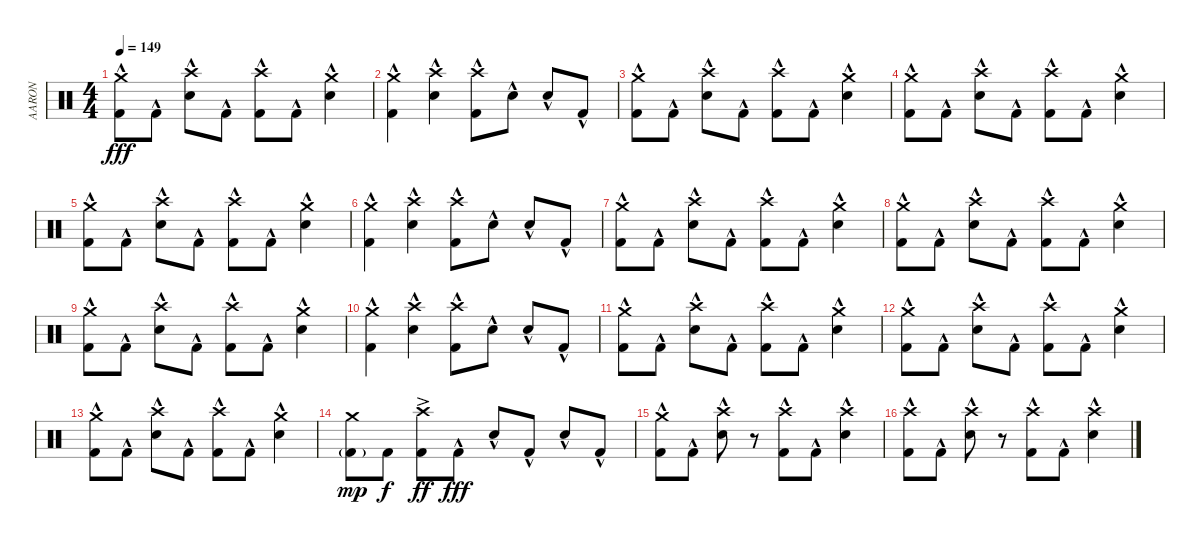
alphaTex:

\track ("AARON" "AARON") {instrument percussion}
\staff {score}
\articulation defaults
\ts (4 4)
\tempo 149
\clef neutral
\ks c
("Crash medium (hit)" "Kick (hit) 2"{hac}).8{dy fff} "Kick (hit) 2"{hac}.8 ("Crash high (hit)" "Snare (hit) 2"{hac}).8 "Kick (hit) 2"{hac}.8 ("Crash high (hit)" "Kick (hit) 2"{hac}).8 "Kick (hit) 2"{hac}.8 ("Crash medium (hit)" "Snare (hit) 2"{hac}).4 |
("Crash medium (hit)" "Kick (hit) 2"{hac}).4 ("Crash high (hit)" "Snare (hit) 2"{hac}).4 ("Crash high (hit)" "Kick (hit) 2"{hac}).8 "Snare (hit) 2"{hac}.8 "Snare (hit) 2"{hac}.8 "Kick (hit) 2"{hac}.8 |
("Crash medium (hit)" "Kick (hit) 2"{hac}).8 "Kick (hit) 2"{hac}.8 ("Crash high (hit)" "Snare (hit) 2"{hac}).8 "Kick (hit) 2"{hac}.8 ("Crash high (hit)" "Kick (hit) 2"{hac}).8 "Kick (hit) 2"{hac}.8 ("Crash medium (hit)" "Snare (hit) 2"{hac}).4 |
("Crash medium (hit)" "Kick (hit) 2"{hac}).8 "Kick (hit) 2"{hac}.8 ("Crash high (hit)" "Snare (hit) 2"{hac}).8 "Kick (hit) 2"{hac}.8 ("Crash high (hit)" "Kick (hit) 2"{hac}).8 "Kick (hit) 2"{hac}.8 ("Crash medium (hit)" "Snare (hit) 2"{hac}).4 |
("Crash medium (hit)" "Kick (hit) 2"{hac}).8 "Kick (hit) 2"{hac}.8 ("Crash high (hit)" "Snare (hit) 2"{hac}).8 "Kick (hit) 2"{hac}.8 ("Crash high (hit)" "Kick (hit) 2"{hac}).8 "Kick (hit) 2"{hac}.8 ("Crash medium (hit)" "Snare (hit) 2"{hac}).4 |
("Crash medium (hit)" "Kick (hit) 2"{hac}).4 ("Crash high (hit)" "Snare (hit) 2"{hac}).4 ("Crash high (hit)" "Kick (hit) 2"{hac}).8 "Snare (hit) 2"{hac}.8 "Snare (hit) 2"{hac}.8 "Kick (hit) 2"{hac}.8 |
("Crash medium (hit)" "Kick (hit) 2"{hac}).8 "Kick (hit) 2"{hac}.8 ("Crash high (hit)" "Snare (hit) 2"{hac}).8 "Kick (hit) 2"{hac}.8 ("Crash high (hit)" "Kick (hit) 2"{hac}).8 "Kick (hit) 2"{hac}.8 ("Crash medium (hit)" "Snare (hit) 2"{hac}).4 |
("Crash medium (hit)" "Kick (hit) 2"{hac}).8 "Kick (hit) 2"{hac}.8 ("Crash high (hit)" "Snare (hit) 2"{hac}).8 "Kick (hit) 2"{hac}.8 ("Crash high (hit)" "Kick (hit) 2"{hac}).8 "Kick (hit) 2"{hac}.8 ("Crash medium (hit)" "Snare (hit) 2"{hac}).4 |
("Crash medium (hit)" "Kick (hit) 2"{hac}).8 "Kick (hit) 2"{hac}.8 ("Crash high (hit)" "Snare (hit) 2"{hac}).8 "Kick (hit) 2"{hac}.8 ("Crash high (hit)" "Kick (hit) 2"{hac}).8 "Kick (hit) 2"{hac}.8 ("Crash medium (hit)" "Snare (hit) 2"{hac}).4 |
("Crash medium (hit)" "Kick (hit) 2"{hac}).4 ("Crash high (hit)" "Snare (hit) 2"{hac}).4 ("Crash high (hit)" "Kick (hit) 2"{hac}).8 "Snare (hit) 2"{hac}.8 "Snare (hit) 2"{hac}.8 "Kick (hit) 2"{hac}.8 |
("Crash medium (hit)" "Kick (hit) 2"{hac}).8 "Kick (hit) 2"{hac}.8 ("Crash high (hit)" "Snare (hit) 2"{hac}).8 "Kick (hit) 2"{hac}.8 ("Crash high (hit)" "Kick (hit) 2"{hac}).8 "Kick (hit) 2"{hac}.8 ("Crash medium (hit)" "Snare (hit) 2"{hac}).4 |
("Crash medium (hit)" "Kick (hit) 2"{hac}).8 "Kick (hit) 2"{hac}.8 ("Crash high (hit)" "Snare (hit) 2"{hac}).8 "Kick (hit) 2"{hac}.8 ("Crash high (hit)" "Kick (hit) 2"{hac}).8 "Kick (hit) 2"{hac}.8 ("Crash medium (hit)" "Snare (hit) 2"{hac}).4 |
("Crash medium (hit)" "Kick (hit) 2"{hac}).8 "Kick (hit) 2"{hac}.8 ("Crash high (hit)" "Snare (hit) 2"{hac}).8 "Kick (hit) 2"{hac}.8 ("Crash high (hit)" "Kick (hit) 2"{hac}).8 "Kick (hit) 2"{hac}.8 ("Crash medium (hit)" "Snare (hit) 2"{hac}).4 |
("Crash medium (hit)" "Kick (hit) 2"{g}).8{dy mp} "Kick (hit) 2".8{dy f} ("Crash high (hit)" "Kick (hit) 2"{ac}).8{dy ff} "Kick (hit) 2"{hac}.8{dy fff} "Snare (hit) 2"{hac}.8 "Kick (hit) 2"{hac}.8 "Snare (hit) 2"{hac}.8 "Kick (hit) 2"{hac}.8 |
("Crash medium (hit)" "Kick (hit) 2"{hac}).8 "Kick (hit) 2"{hac}.8 ("Crash high (hit)" "Snare (hit) 2"{hac}).8 r.8 ("Crash high (hit)" "Kick (hit) 2"{hac}).8 "Kick (hit) 2"{hac}.8 ("Crash high (hit)" "Snare (hit) 2"{hac}).4 |
("Crash high (hit)" "Kick (hit) 2"{hac}).8 "Kick (hit) 2"{hac}.8 ("Crash high (hit)" "Snare (hit) 2"{hac}).8 r.8 ("Crash high (hit)" "Kick (hit) 2"{hac}).8 "Kick (hit) 2"{hac}.8 ("Crash high (hit)" "Snare (hit) 2"{hac}).4
